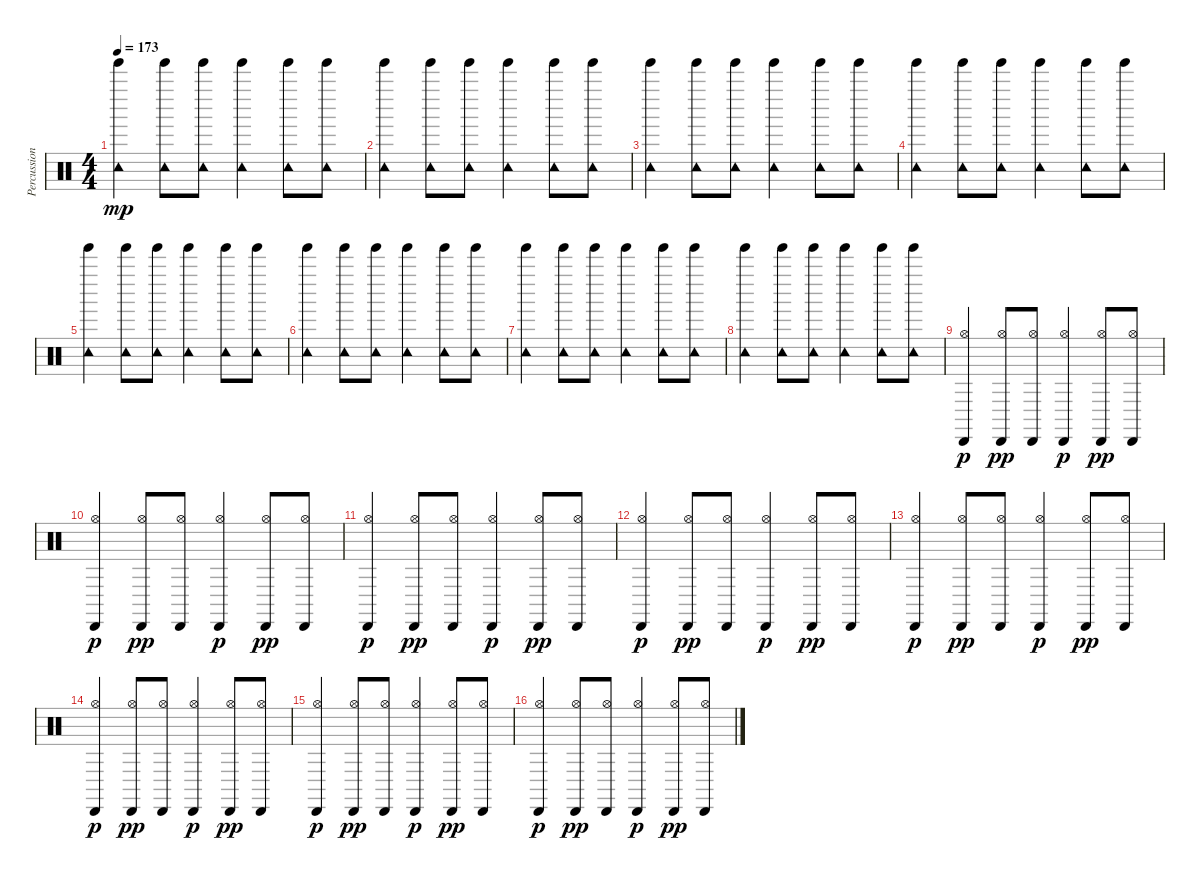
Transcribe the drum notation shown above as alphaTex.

\track ("Percussion" "Percussion") {instrument percussion}
\staff {score}
\articulation defaults
\ts (4 4)
\tempo 173
\clef neutral
\ks c
("Tambourine (hit)" "Tinkle Bell (hit)").4{dy mp} ("Tambourine (hit)" "Tinkle Bell (hit)").8 ("Tambourine (hit)" "Tinkle Bell (hit)").8 ("Tambourine (hit)" "Tinkle Bell (hit)").4 ("Tambourine (hit)" "Tinkle Bell (hit)").8 ("Tambourine (hit)" "Tinkle Bell (hit)").8 |
("Tambourine (hit)" "Tinkle Bell (hit)").4 ("Tambourine (hit)" "Tinkle Bell (hit)").8 ("Tambourine (hit)" "Tinkle Bell (hit)").8 ("Tambourine (hit)" "Tinkle Bell (hit)").4 ("Tambourine (hit)" "Tinkle Bell (hit)").8 ("Tambourine (hit)" "Tinkle Bell (hit)").8 |
("Tambourine (hit)" "Tinkle Bell (hit)").4 ("Tambourine (hit)" "Tinkle Bell (hit)").8 ("Tambourine (hit)" "Tinkle Bell (hit)").8 ("Tambourine (hit)" "Tinkle Bell (hit)").4 ("Tambourine (hit)" "Tinkle Bell (hit)").8 ("Tambourine (hit)" "Tinkle Bell (hit)").8 |
("Tambourine (hit)" "Tinkle Bell (hit)").4 ("Tambourine (hit)" "Tinkle Bell (hit)").8 ("Tambourine (hit)" "Tinkle Bell (hit)").8 ("Tambourine (hit)" "Tinkle Bell (hit)").4 ("Tambourine (hit)" "Tinkle Bell (hit)").8 ("Tambourine (hit)" "Tinkle Bell (hit)").8 |
("Tambourine (hit)" "Tinkle Bell (hit)").4 ("Tambourine (hit)" "Tinkle Bell (hit)").8 ("Tambourine (hit)" "Tinkle Bell (hit)").8 ("Tambourine (hit)" "Tinkle Bell (hit)").4 ("Tambourine (hit)" "Tinkle Bell (hit)").8 ("Tambourine (hit)" "Tinkle Bell (hit)").8 |
("Tambourine (hit)" "Tinkle Bell (hit)").4 ("Tambourine (hit)" "Tinkle Bell (hit)").8 ("Tambourine (hit)" "Tinkle Bell (hit)").8 ("Tambourine (hit)" "Tinkle Bell (hit)").4 ("Tambourine (hit)" "Tinkle Bell (hit)").8 ("Tambourine (hit)" "Tinkle Bell (hit)").8 |
("Tambourine (hit)" "Tinkle Bell (hit)").4 ("Tambourine (hit)" "Tinkle Bell (hit)").8 ("Tambourine (hit)" "Tinkle Bell (hit)").8 ("Tambourine (hit)" "Tinkle Bell (hit)").4 ("Tambourine (hit)" "Tinkle Bell (hit)").8 ("Tambourine (hit)" "Tinkle Bell (hit)").8 |
("Tambourine (hit)" "Tinkle Bell (hit)").4 ("Tambourine (hit)" "Tinkle Bell (hit)").8 ("Tambourine (hit)" "Tinkle Bell (hit)").8 ("Tambourine (hit)" "Tinkle Bell (hit)").4 ("Tambourine (hit)" "Tinkle Bell (hit)").8 ("Tambourine (hit)" "Tinkle Bell (hit)").8 |
("Cabasa (hit)" "Hi-Hat (open)").4{dy p} ("Cabasa (hit)" "Hi-Hat (open)").8{dy pp} ("Cabasa (hit)" "Hi-Hat (open)").8 ("Cabasa (hit)" "Hi-Hat (open)").4{dy p} ("Cabasa (hit)" "Hi-Hat (open)").8{dy pp} ("Cabasa (hit)" "Hi-Hat (open)").8 |
("Cabasa (hit)" "Hi-Hat (open)").4{dy p} ("Cabasa (hit)" "Hi-Hat (open)").8{dy pp} ("Cabasa (hit)" "Hi-Hat (open)").8 ("Cabasa (hit)" "Hi-Hat (open)").4{dy p} ("Cabasa (hit)" "Hi-Hat (open)").8{dy pp} ("Cabasa (hit)" "Hi-Hat (open)").8 |
("Cabasa (hit)" "Hi-Hat (open)").4{dy p} ("Cabasa (hit)" "Hi-Hat (open)").8{dy pp} ("Cabasa (hit)" "Hi-Hat (open)").8 ("Cabasa (hit)" "Hi-Hat (open)").4{dy p} ("Cabasa (hit)" "Hi-Hat (open)").8{dy pp} ("Cabasa (hit)" "Hi-Hat (open)").8 |
("Cabasa (hit)" "Hi-Hat (open)").4{dy p} ("Cabasa (hit)" "Hi-Hat (open)").8{dy pp} ("Cabasa (hit)" "Hi-Hat (open)").8 ("Cabasa (hit)" "Hi-Hat (open)").4{dy p} ("Cabasa (hit)" "Hi-Hat (open)").8{dy pp} ("Cabasa (hit)" "Hi-Hat (open)").8 |
("Cabasa (hit)" "Hi-Hat (open)").4{dy p} ("Cabasa (hit)" "Hi-Hat (open)").8{dy pp} ("Cabasa (hit)" "Hi-Hat (open)").8 ("Cabasa (hit)" "Hi-Hat (open)").4{dy p} ("Cabasa (hit)" "Hi-Hat (open)").8{dy pp} ("Cabasa (hit)" "Hi-Hat (open)").8 |
("Cabasa (hit)" "Hi-Hat (open)").4{dy p} ("Cabasa (hit)" "Hi-Hat (open)").8{dy pp} ("Cabasa (hit)" "Hi-Hat (open)").8 ("Cabasa (hit)" "Hi-Hat (open)").4{dy p} ("Cabasa (hit)" "Hi-Hat (open)").8{dy pp} ("Cabasa (hit)" "Hi-Hat (open)").8 |
("Cabasa (hit)" "Hi-Hat (open)").4{dy p} ("Cabasa (hit)" "Hi-Hat (open)").8{dy pp} ("Cabasa (hit)" "Hi-Hat (open)").8 ("Cabasa (hit)" "Hi-Hat (open)").4{dy p} ("Cabasa (hit)" "Hi-Hat (open)").8{dy pp} ("Cabasa (hit)" "Hi-Hat (open)").8 |
("Cabasa (hit)" "Hi-Hat (open)").4{dy p} ("Cabasa (hit)" "Hi-Hat (open)").8{dy pp} ("Cabasa (hit)" "Hi-Hat (open)").8 ("Cabasa (hit)" "Hi-Hat (open)").4{dy p} ("Cabasa (hit)" "Hi-Hat (open)").8{dy pp} ("Cabasa (hit)" "Hi-Hat (open)").8
